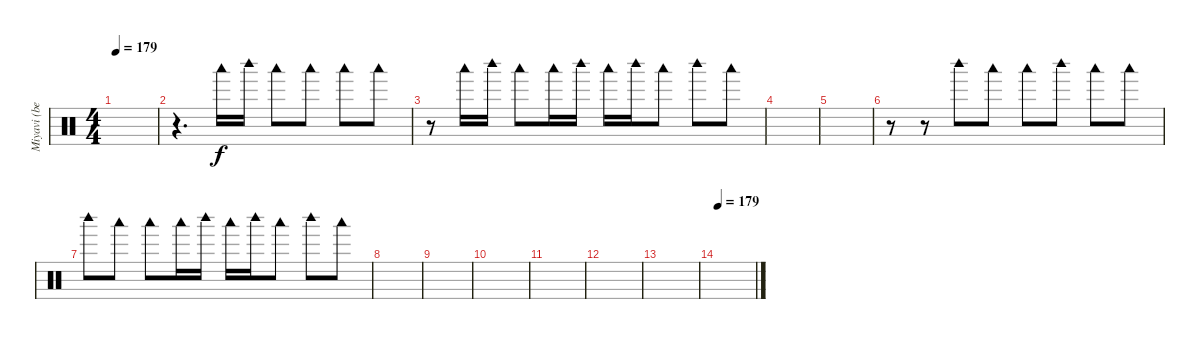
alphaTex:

\track ("Miyavi (beating guitar)" "Miyavi (be") {instrument percussion}
\staff {score}
\articulation defaults
\ts (4 4)
\tempo 179
\clef neutral
\ks c
|
r.4{d} "Woodblock low (hit)".16 "Woodblock high (hit)".16 "Woodblock low (hit)".8 "Woodblock low (hit)".8 "Woodblock low (hit)".8 "Woodblock low (hit)".8 |
r.8 "Woodblock low (hit)".16 "Woodblock high (hit)".16 "Woodblock low (hit)".8 "Woodblock low (hit)".16 "Woodblock high (hit)".16 "Woodblock low (hit)".16 "Woodblock high (hit)".16 "Woodblock low (hit)".8 "Woodblock high (hit)".8 "Woodblock low (hit)".8 |
|
|
r.8 r.8 "Woodblock high (hit)".8 "Woodblock low (hit)".8 "Woodblock low (hit)".8 "Woodblock high (hit)".8 "Woodblock low (hit)".8 "Woodblock low (hit)".8 |
"Woodblock high (hit)".8 "Woodblock low (hit)".8 "Woodblock low (hit)".8 "Woodblock low (hit)".16 "Woodblock high (hit)".16 "Woodblock low (hit)".16 "Woodblock high (hit)".16 "Woodblock low (hit)".8 "Woodblock high (hit)".8 "Woodblock low (hit)".8 |
|
|
|
|
|
|
\tempo 179
